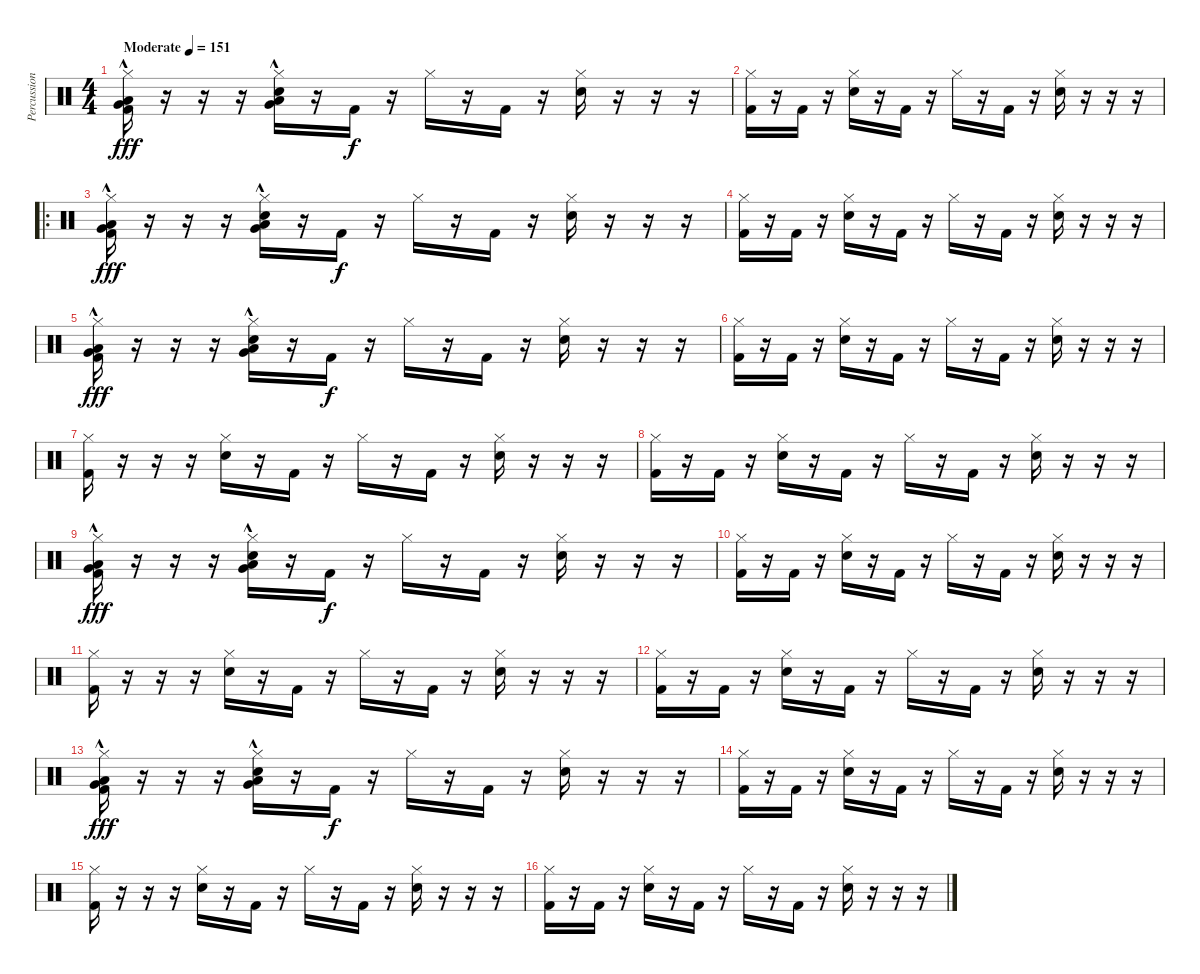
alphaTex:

\track ("Percussion" "Percussion") {instrument percussion}
\staff {score}
\articulation defaults
\ts (4 4)
\tempo (151 "Moderate")
\clef neutral
\ks c
("Hi-Hat (closed)" "Very Low Tom (hit)"{hac} "Low Floor Tom (hit)"{hac} "Kick (hit) 2").16{dy fff} r.16 r.16 r.16 ("Hi-Hat (closed)" "Very Low Tom (hit)"{hac} "Low Floor Tom (hit)"{hac} "Snare (hit) 2").16 r.16 "Kick (hit) 2".16{dy f} r.16 "Hi-Hat (closed)".16 r.16 "Kick (hit) 2".16 r.16 ("Hi-Hat (closed)" "Snare (hit) 2").16 r.16 r.16 r.16 |
("Hi-Hat (closed)" "Kick (hit) 2").16 r.16 "Kick (hit) 2".16 r.16 ("Hi-Hat (closed)" "Snare (hit) 2").16 r.16 "Kick (hit) 2".16 r.16 "Hi-Hat (closed)".16 r.16 "Kick (hit) 2".16 r.16 ("Hi-Hat (closed)" "Snare (hit) 2").16 r.16 r.16 r.16 |
\ro
("Hi-Hat (closed)" "Very Low Tom (hit)"{hac} "Low Floor Tom (hit)"{hac} "Kick (hit) 2").16{dy fff} r.16 r.16 r.16 ("Hi-Hat (closed)" "Very Low Tom (hit)"{hac} "Low Floor Tom (hit)"{hac} "Snare (hit) 2").16 r.16 "Kick (hit) 2".16{dy f} r.16 "Hi-Hat (closed)".16 r.16 "Kick (hit) 2".16 r.16 ("Hi-Hat (closed)" "Snare (hit) 2").16 r.16 r.16 r.16 |
("Hi-Hat (closed)" "Kick (hit) 2").16 r.16 "Kick (hit) 2".16 r.16 ("Hi-Hat (closed)" "Snare (hit) 2").16 r.16 "Kick (hit) 2".16 r.16 "Hi-Hat (closed)".16 r.16 "Kick (hit) 2".16 r.16 ("Hi-Hat (closed)" "Snare (hit) 2").16 r.16 r.16 r.16 |
("Hi-Hat (closed)" "Very Low Tom (hit)"{hac} "Low Floor Tom (hit)"{hac} "Kick (hit) 2").16{dy fff} r.16 r.16 r.16 ("Hi-Hat (closed)" "Very Low Tom (hit)"{hac} "Low Floor Tom (hit)"{hac} "Snare (hit) 2").16 r.16 "Kick (hit) 2".16{dy f} r.16 "Hi-Hat (closed)".16 r.16 "Kick (hit) 2".16 r.16 ("Hi-Hat (closed)" "Snare (hit) 2").16 r.16 r.16 r.16 |
("Hi-Hat (closed)" "Kick (hit) 2").16 r.16 "Kick (hit) 2".16 r.16 ("Hi-Hat (closed)" "Snare (hit) 2").16 r.16 "Kick (hit) 2".16 r.16 "Hi-Hat (closed)".16 r.16 "Kick (hit) 2".16 r.16 ("Hi-Hat (closed)" "Snare (hit) 2").16 r.16 r.16 r.16 |
("Hi-Hat (closed)" "Kick (hit) 2").16 r.16 r.16 r.16 ("Hi-Hat (closed)" "Snare (hit) 2").16 r.16 "Kick (hit) 2".16 r.16 "Hi-Hat (closed)".16 r.16 "Kick (hit) 2".16 r.16 ("Hi-Hat (closed)" "Snare (hit) 2").16 r.16 r.16 r.16 |
("Hi-Hat (closed)" "Kick (hit) 2").16 r.16 "Kick (hit) 2".16 r.16 ("Hi-Hat (closed)" "Snare (hit) 2").16 r.16 "Kick (hit) 2".16 r.16 "Hi-Hat (closed)".16 r.16 "Kick (hit) 2".16 r.16 ("Hi-Hat (closed)" "Snare (hit) 2").16 r.16 r.16 r.16 |
("Hi-Hat (closed)" "Very Low Tom (hit)"{hac} "Low Floor Tom (hit)"{hac} "Kick (hit) 2").16{dy fff} r.16 r.16 r.16 ("Hi-Hat (closed)" "Very Low Tom (hit)"{hac} "Low Floor Tom (hit)"{hac} "Snare (hit) 2").16 r.16 "Kick (hit) 2".16{dy f} r.16 "Hi-Hat (closed)".16 r.16 "Kick (hit) 2".16 r.16 ("Hi-Hat (closed)" "Snare (hit) 2").16 r.16 r.16 r.16 |
("Hi-Hat (closed)" "Kick (hit) 2").16 r.16 "Kick (hit) 2".16 r.16 ("Hi-Hat (closed)" "Snare (hit) 2").16 r.16 "Kick (hit) 2".16 r.16 "Hi-Hat (closed)".16 r.16 "Kick (hit) 2".16 r.16 ("Hi-Hat (closed)" "Snare (hit) 2").16 r.16 r.16 r.16 |
("Hi-Hat (closed)" "Kick (hit) 2").16 r.16 r.16 r.16 ("Hi-Hat (closed)" "Snare (hit) 2").16 r.16 "Kick (hit) 2".16 r.16 "Hi-Hat (closed)".16 r.16 "Kick (hit) 2".16 r.16 ("Hi-Hat (closed)" "Snare (hit) 2").16 r.16 r.16 r.16 |
("Hi-Hat (closed)" "Kick (hit) 2").16 r.16 "Kick (hit) 2".16 r.16 ("Hi-Hat (closed)" "Snare (hit) 2").16 r.16 "Kick (hit) 2".16 r.16 "Hi-Hat (closed)".16 r.16 "Kick (hit) 2".16 r.16 ("Hi-Hat (closed)" "Snare (hit) 2").16 r.16 r.16 r.16 |
("Hi-Hat (closed)" "Very Low Tom (hit)"{hac} "Low Floor Tom (hit)"{hac} "Kick (hit) 2").16{dy fff} r.16 r.16 r.16 ("Hi-Hat (closed)" "Very Low Tom (hit)"{hac} "Low Floor Tom (hit)"{hac} "Snare (hit) 2").16 r.16 "Kick (hit) 2".16{dy f} r.16 "Hi-Hat (closed)".16 r.16 "Kick (hit) 2".16 r.16 ("Hi-Hat (closed)" "Snare (hit) 2").16 r.16 r.16 r.16 |
("Hi-Hat (closed)" "Kick (hit) 2").16 r.16 "Kick (hit) 2".16 r.16 ("Hi-Hat (closed)" "Snare (hit) 2").16 r.16 "Kick (hit) 2".16 r.16 "Hi-Hat (closed)".16 r.16 "Kick (hit) 2".16 r.16 ("Hi-Hat (closed)" "Snare (hit) 2").16 r.16 r.16 r.16 |
("Hi-Hat (closed)" "Kick (hit) 2").16 r.16 r.16 r.16 ("Hi-Hat (closed)" "Snare (hit) 2").16 r.16 "Kick (hit) 2".16 r.16 "Hi-Hat (closed)".16 r.16 "Kick (hit) 2".16 r.16 ("Hi-Hat (closed)" "Snare (hit) 2").16 r.16 r.16 r.16 |
("Hi-Hat (closed)" "Kick (hit) 2").16 r.16 "Kick (hit) 2".16 r.16 ("Hi-Hat (closed)" "Snare (hit) 2").16 r.16 "Kick (hit) 2".16 r.16 "Hi-Hat (closed)".16 r.16 "Kick (hit) 2".16 r.16 ("Hi-Hat (closed)" "Snare (hit) 2").16 r.16 r.16 r.16
